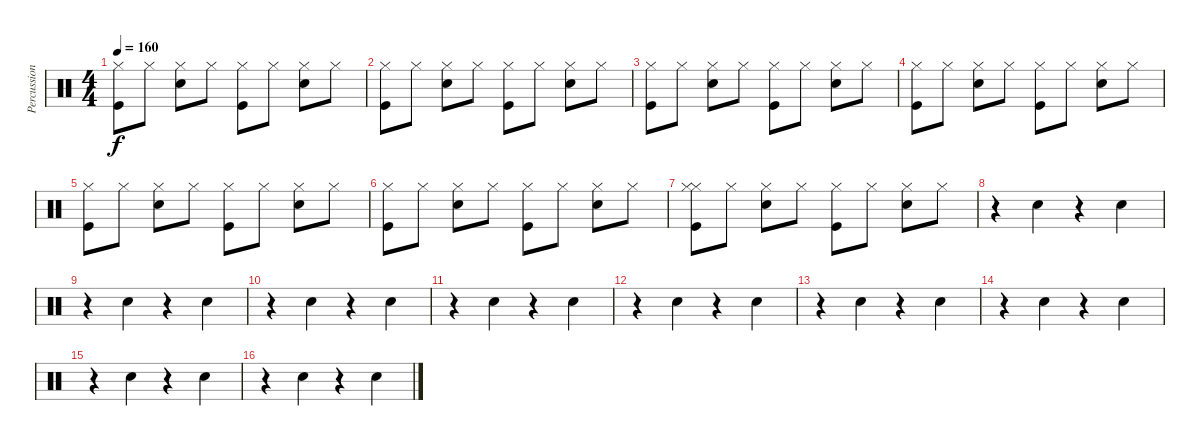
\track ("Percussion" "Percussion") {instrument percussion}
\staff {score}
\articulation defaults
\ts (4 4)
\tempo 160
\clef neutral
\ks c
("Hi-Hat (closed)" "Kick (hit)").8{dy f} "Hi-Hat (closed)".8 ("Hi-Hat (closed)" "Snare (hit) 2").8 "Hi-Hat (closed)".8 ("Hi-Hat (closed)" "Kick (hit)").8 "Hi-Hat (closed)".8 ("Hi-Hat (closed)" "Snare (hit) 2").8 "Hi-Hat (closed)".8 |
("Hi-Hat (closed)" "Kick (hit)").8 "Hi-Hat (closed)".8 ("Hi-Hat (closed)" "Snare (hit) 2").8 "Hi-Hat (closed)".8 ("Hi-Hat (closed)" "Kick (hit)").8 "Hi-Hat (closed)".8 ("Hi-Hat (closed)" "Snare (hit) 2").8 "Hi-Hat (closed)".8 |
("Hi-Hat (closed)" "Kick (hit)").8 "Hi-Hat (closed)".8 ("Hi-Hat (closed)" "Snare (hit) 2").8 "Hi-Hat (closed)".8 ("Hi-Hat (closed)" "Kick (hit)").8 "Hi-Hat (closed)".8 ("Hi-Hat (closed)" "Snare (hit) 2").8 "Hi-Hat (closed)".8 |
("Hi-Hat (closed)" "Kick (hit)").8 "Hi-Hat (closed)".8 ("Hi-Hat (closed)" "Snare (hit) 2").8 "Hi-Hat (closed)".8 ("Hi-Hat (closed)" "Kick (hit)").8 "Hi-Hat (closed)".8 ("Hi-Hat (closed)" "Snare (hit) 2").8 "Hi-Hat (closed)".8 |
("Hi-Hat (closed)" "Kick (hit)").8 "Hi-Hat (closed)".8 ("Hi-Hat (closed)" "Snare (hit) 2").8 "Hi-Hat (closed)".8 ("Hi-Hat (closed)" "Kick (hit)").8 "Hi-Hat (closed)".8 ("Hi-Hat (closed)" "Snare (hit) 2").8 "Hi-Hat (closed)".8 |
("Hi-Hat (closed)" "Kick (hit)").8 "Hi-Hat (closed)".8 ("Hi-Hat (closed)" "Snare (hit) 2").8 "Hi-Hat (closed)".8 ("Hi-Hat (closed)" "Kick (hit)").8 "Hi-Hat (closed)".8 ("Hi-Hat (closed)" "Snare (hit) 2").8 "Hi-Hat (closed)".8 |
("Hi-Hat (closed)" "Hi-Hat (closed)" "Kick (hit)").8 "Hi-Hat (closed)".8 ("Hi-Hat (closed)" "Snare (hit) 2").8 "Hi-Hat (closed)".8 ("Hi-Hat (closed)" "Kick (hit)").8 "Hi-Hat (closed)".8 ("Hi-Hat (closed)" "Snare (hit) 2").8 "Hi-Hat (closed)".8 |
r.4 "Hand Clap (hit)".4 r.4 "Hand Clap (hit)".4 |
r.4 "Hand Clap (hit)".4 r.4 "Hand Clap (hit)".4 |
r.4 "Hand Clap (hit)".4 r.4 "Hand Clap (hit)".4 |
r.4 "Hand Clap (hit)".4 r.4 "Hand Clap (hit)".4 |
r.4 "Hand Clap (hit)".4 r.4 "Hand Clap (hit)".4 |
r.4 "Hand Clap (hit)".4 r.4 "Hand Clap (hit)".4 |
r.4 "Hand Clap (hit)".4 r.4 "Hand Clap (hit)".4 |
r.4 "Hand Clap (hit)".4 r.4 "Hand Clap (hit)".4 |
r.4 "Hand Clap (hit)".4 r.4 "Hand Clap (hit)".4
